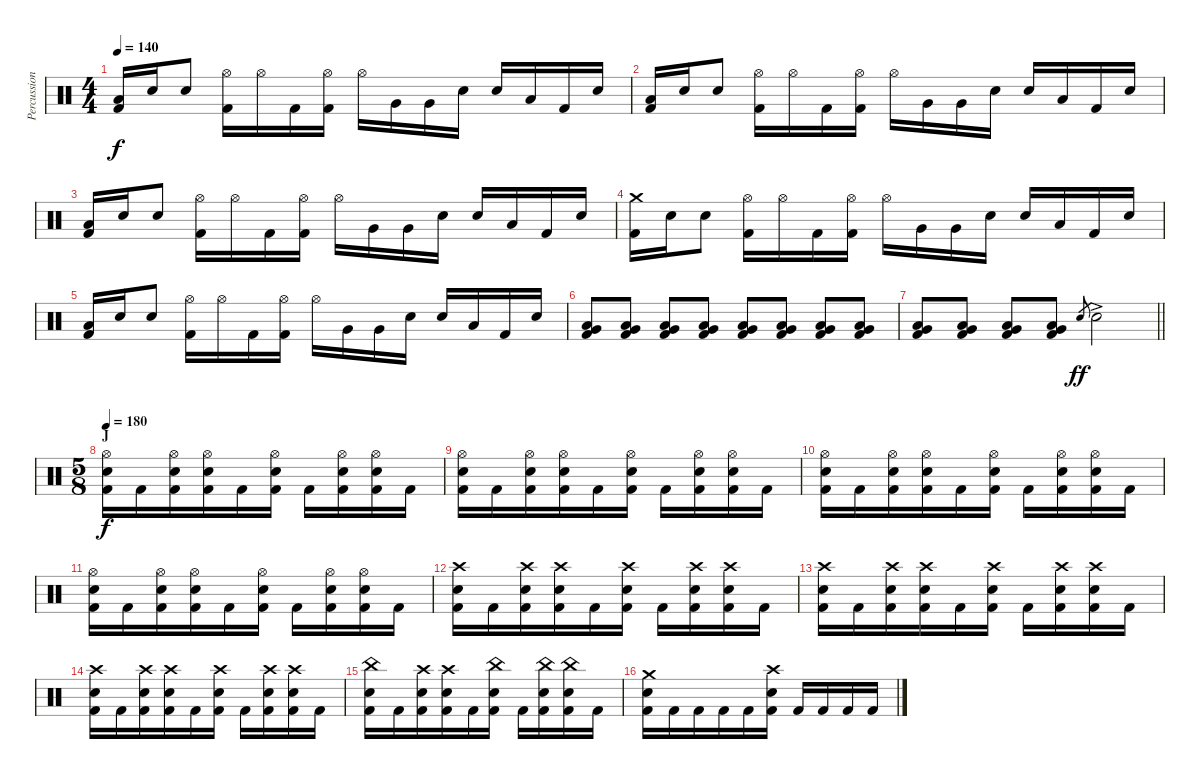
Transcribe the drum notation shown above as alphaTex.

\track ("Percussion" "Percussion") {instrument percussion}
\staff {score}
\articulation defaults
\ts (4 4)
\tempo 140
\clef neutral
\ks c
("Low Tom (hit)" "Kick (hit) 2").16{dy f} "Electric Snare (hit)".16 "Electric Snare (hit)".8 ("Hi-Hat (open)" "Kick (hit) 2").16 "Hi-Hat (open)".16 "Kick (hit) 2".16 ("Hi-Hat (open)" "Kick (hit) 2").16 "Hi-Hat (open)".16 "Very Low Tom (hit)".16 "Very Low Tom (hit)".16 "Electric Snare (hit)".16 "Electric Snare (hit)".16 "Low Tom (hit)".16 "Kick (hit) 2".16 "Electric Snare (hit)".16 |
("Low Tom (hit)" "Kick (hit) 2").16 "Electric Snare (hit)".16 "Electric Snare (hit)".8 ("Hi-Hat (open)" "Kick (hit) 2").16 "Hi-Hat (open)".16 "Kick (hit) 2".16 ("Hi-Hat (open)" "Kick (hit) 2").16 "Hi-Hat (open)".16 "Very Low Tom (hit)".16 "Very Low Tom (hit)".16 "Electric Snare (hit)".16 "Electric Snare (hit)".16 "Low Tom (hit)".16 "Kick (hit) 2".16 "Electric Snare (hit)".16 |
("Low Tom (hit)" "Kick (hit) 2").16 "Electric Snare (hit)".16 "Electric Snare (hit)".8 ("Hi-Hat (open)" "Kick (hit) 2").16 "Hi-Hat (open)".16 "Kick (hit) 2".16 ("Hi-Hat (open)" "Kick (hit) 2").16 "Hi-Hat (open)".16 "Very Low Tom (hit)".16 "Very Low Tom (hit)".16 "Electric Snare (hit)".16 "Electric Snare (hit)".16 "Low Tom (hit)".16 "Kick (hit) 2".16 "Electric Snare (hit)".16 |
("Crash medium (hit)" "Kick (hit) 2").16 "Electric Snare (hit)".16 "Electric Snare (hit)".8 ("Hi-Hat (open)" "Kick (hit) 2").16 "Hi-Hat (open)".16 "Kick (hit) 2".16 ("Hi-Hat (open)" "Kick (hit) 2").16 "Hi-Hat (open)".16 "Very Low Tom (hit)".16 "Very Low Tom (hit)".16 "Electric Snare (hit)".16 "Electric Snare (hit)".16 "Low Tom (hit)".16 "Kick (hit) 2".16 "Electric Snare (hit)".16 |
("Low Tom (hit)" "Kick (hit) 2").16 "Electric Snare (hit)".16 "Electric Snare (hit)".8 ("Hi-Hat (open)" "Kick (hit) 2").16 "Hi-Hat (open)".16 "Kick (hit) 2".16 ("Hi-Hat (open)" "Kick (hit) 2").16 "Hi-Hat (open)".16 "Very Low Tom (hit)".16 "Very Low Tom (hit)".16 "Electric Snare (hit)".16 "Electric Snare (hit)".16 "Low Tom (hit)".16 "Kick (hit) 2".16 "Electric Snare (hit)".16 |
("Very Low Tom (hit)" "Low Floor Tom (hit)" "Kick (hit) 2").8{volume 4} ("Very Low Tom (hit)" "Low Floor Tom (hit)" "Kick (hit) 2").8 ("Very Low Tom (hit)" "Low Floor Tom (hit)" "Kick (hit) 2").8{volume 14} ("Very Low Tom (hit)" "Low Floor Tom (hit)" "Kick (hit) 2").8 ("Very Low Tom (hit)" "Low Floor Tom (hit)" "Kick (hit) 2").8 ("Very Low Tom (hit)" "Low Floor Tom (hit)" "Kick (hit) 2").8 ("Very Low Tom (hit)" "Low Floor Tom (hit)" "Kick (hit) 2").8 ("Very Low Tom (hit)" "Low Floor Tom (hit)" "Kick (hit) 2").8 |
\barLineRight lightlight
("Very Low Tom (hit)" "Low Floor Tom (hit)" "Kick (hit) 2").8 ("Very Low Tom (hit)" "Low Floor Tom (hit)" "Kick (hit) 2").8 ("Very Low Tom (hit)" "Low Floor Tom (hit)" "Kick (hit) 2").8 ("Very Low Tom (hit)" "Low Floor Tom (hit)" "Kick (hit) 2").8 "Electric Snare (hit)".8{gr dy ff} "Electric Snare (hit)"{ac}.2 |
\ts (5 8)
\section ("" "J")
\tempo 180
("Hi-Hat (open)" "Electric Snare (hit)" "Kick (hit) 2").16{dy f volume 14} "Kick (hit) 2".16 ("Hi-Hat (open)" "Electric Snare (hit)" "Kick (hit) 2").16 ("Hi-Hat (open)" "Electric Snare (hit)" "Kick (hit) 2").16 "Kick (hit) 2".16 ("Hi-Hat (open)" "Electric Snare (hit)" "Kick (hit) 2").16 "Kick (hit) 2".16 ("Hi-Hat (open)" "Electric Snare (hit)" "Kick (hit) 2").16 ("Hi-Hat (open)" "Electric Snare (hit)" "Kick (hit) 2").16 "Kick (hit) 2".16 |
("Hi-Hat (open)" "Electric Snare (hit)" "Kick (hit) 2").16 "Kick (hit) 2".16 ("Hi-Hat (open)" "Electric Snare (hit)" "Kick (hit) 2").16 ("Hi-Hat (open)" "Electric Snare (hit)" "Kick (hit) 2").16 "Kick (hit) 2".16 ("Hi-Hat (open)" "Electric Snare (hit)" "Kick (hit) 2").16 "Kick (hit) 2".16 ("Hi-Hat (open)" "Electric Snare (hit)" "Kick (hit) 2").16 ("Hi-Hat (open)" "Electric Snare (hit)" "Kick (hit) 2").16 "Kick (hit) 2".16 |
("Hi-Hat (open)" "Electric Snare (hit)" "Kick (hit) 2").16 "Kick (hit) 2".16 ("Hi-Hat (open)" "Electric Snare (hit)" "Kick (hit) 2").16 ("Hi-Hat (open)" "Electric Snare (hit)" "Kick (hit) 2").16 "Kick (hit) 2".16 ("Hi-Hat (open)" "Electric Snare (hit)" "Kick (hit) 2").16 "Kick (hit) 2".16 ("Hi-Hat (open)" "Electric Snare (hit)" "Kick (hit) 2").16 ("Hi-Hat (open)" "Electric Snare (hit)" "Kick (hit) 2").16 "Kick (hit) 2".16 |
("Hi-Hat (open)" "Electric Snare (hit)" "Kick (hit) 2").16 "Kick (hit) 2".16 ("Hi-Hat (open)" "Electric Snare (hit)" "Kick (hit) 2").16 ("Hi-Hat (open)" "Electric Snare (hit)" "Kick (hit) 2").16 "Kick (hit) 2".16 ("Hi-Hat (open)" "Electric Snare (hit)" "Kick (hit) 2").16 "Kick (hit) 2".16 ("Hi-Hat (open)" "Electric Snare (hit)" "Kick (hit) 2").16 ("Hi-Hat (open)" "Electric Snare (hit)" "Kick (hit) 2").16 "Kick (hit) 2".16 |
("Crash high (hit)" "Electric Snare (hit)" "Kick (hit) 2").16 "Kick (hit) 2".16 ("Crash high (hit)" "Electric Snare (hit)" "Kick (hit) 2").16 ("Crash high (hit)" "Electric Snare (hit)" "Kick (hit) 2").16 "Kick (hit) 2".16 ("Crash high (hit)" "Electric Snare (hit)" "Kick (hit) 2").16 "Kick (hit) 2".16 ("Crash high (hit)" "Electric Snare (hit)" "Kick (hit) 2").16 ("Crash high (hit)" "Electric Snare (hit)" "Kick (hit) 2").16 "Kick (hit) 2".16 |
("Crash high (hit)" "Electric Snare (hit)" "Kick (hit) 2").16 "Kick (hit) 2".16 ("Crash high (hit)" "Electric Snare (hit)" "Kick (hit) 2").16 ("Crash high (hit)" "Electric Snare (hit)" "Kick (hit) 2").16 "Kick (hit) 2".16 ("Crash high (hit)" "Electric Snare (hit)" "Kick (hit) 2").16 "Kick (hit) 2".16 ("Crash high (hit)" "Electric Snare (hit)" "Kick (hit) 2").16 ("Crash high (hit)" "Electric Snare (hit)" "Kick (hit) 2").16 "Kick (hit) 2".16 |
("Crash high (hit)" "Electric Snare (hit)" "Kick (hit) 2").16 "Kick (hit) 2".16 ("Crash high (hit)" "Electric Snare (hit)" "Kick (hit) 2").16 ("Crash high (hit)" "Electric Snare (hit)" "Kick (hit) 2").16 "Kick (hit) 2".16 ("Crash high (hit)" "Electric Snare (hit)" "Kick (hit) 2").16 "Kick (hit) 2".16 ("Crash high (hit)" "Electric Snare (hit)" "Kick (hit) 2").16 ("Crash high (hit)" "Electric Snare (hit)" "Kick (hit) 2").16 "Kick (hit) 2".16 |
("China (hit)" "Electric Snare (hit)" "Kick (hit) 2").16 "Kick (hit) 2".16 ("Crash high (hit)" "Electric Snare (hit)" "Kick (hit) 2").16 ("Crash high (hit)" "Electric Snare (hit)" "Kick (hit) 2").16 "Kick (hit) 2".16 ("China (hit)" "Electric Snare (hit)" "Kick (hit) 2").16 "Kick (hit) 2".16 ("China (hit)" "Electric Snare (hit)" "Kick (hit) 2").16 ("China (hit)" "Electric Snare (hit)" "Kick (hit) 2").16 "Kick (hit) 2".16 |
("Crash medium (hit)" "Electric Snare (hit)" "Kick (hit) 2").16 "Kick (hit) 2".16 "Kick (hit) 2".16 "Kick (hit) 2".16 "Kick (hit) 2".16 ("Crash high (hit)" "Electric Snare (hit)" "Kick (hit) 2").16 "Kick (hit) 2".16 "Kick (hit) 2".16 "Kick (hit) 2".16 "Kick (hit) 2".16
